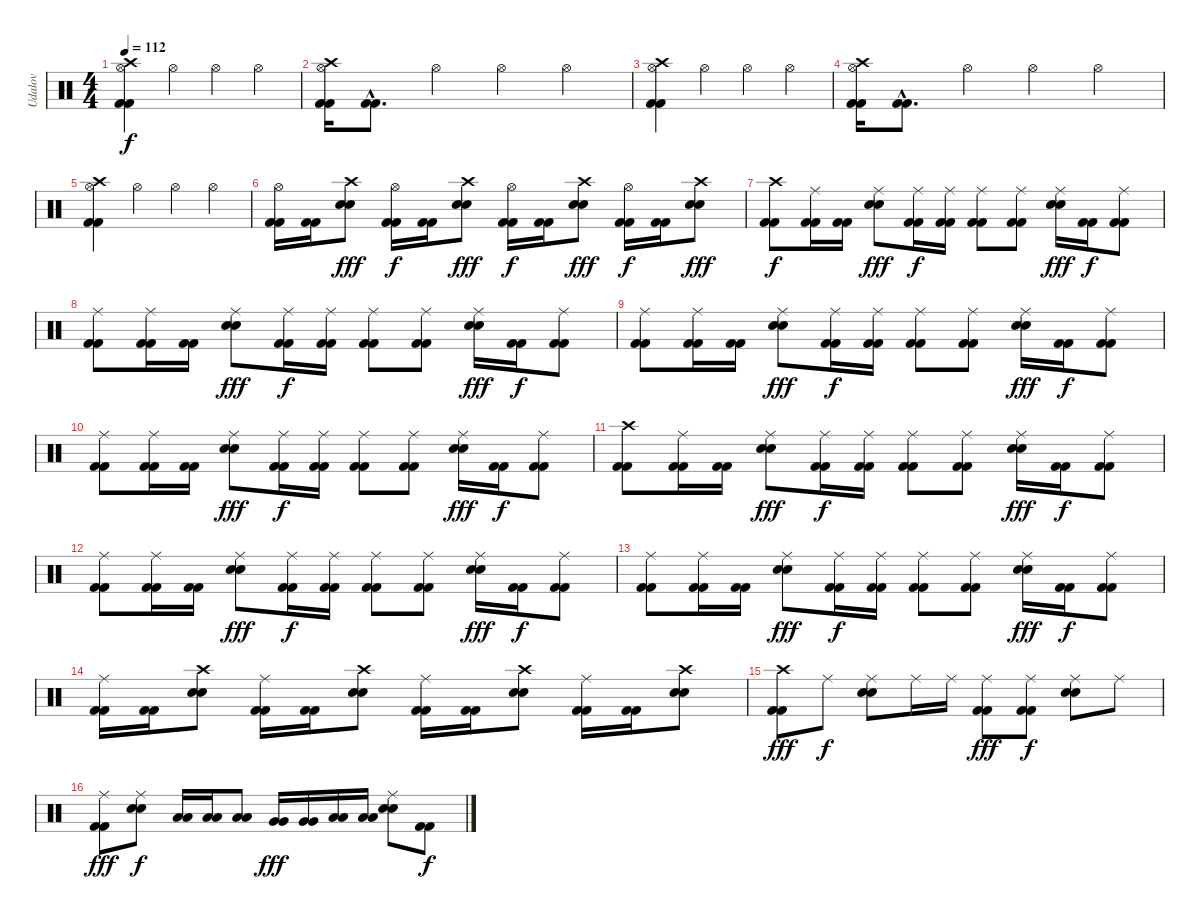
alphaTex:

\track ("Udalov" "Udalov") {instrument percussion}
\staff {score}
\articulation defaults
\ts (4 4)
\tempo 112
\clef neutral
\ks c
("Crash high (hit)" "Hi-Hat (open)" "Kick (hit) 2" "Kick (hit) 2").4{dy f} "Hi-Hat (open)".4 "Hi-Hat (open)".4 "Hi-Hat (open)".4 |
("Crash high (hit)" "Hi-Hat (open)" "Kick (hit) 2" "Kick (hit) 2").16 ("Kick (hit) 2"{hac} "Kick (hit) 2"{hac}).8{d} "Hi-Hat (open)".4 "Hi-Hat (open)".4 "Hi-Hat (open)".4 |
("Crash high (hit)" "Hi-Hat (open)" "Kick (hit) 2" "Kick (hit) 2").4 "Hi-Hat (open)".4 "Hi-Hat (open)".4 "Hi-Hat (open)".4 |
("Crash high (hit)" "Hi-Hat (open)" "Kick (hit) 2" "Kick (hit) 2").16 ("Kick (hit) 2"{hac} "Kick (hit) 2"{hac}).8{d} "Hi-Hat (open)".4 "Hi-Hat (open)".4 "Hi-Hat (open)".4 |
("Crash high (hit)" "Hi-Hat (open)" "Kick (hit) 2" "Kick (hit) 2").4 "Hi-Hat (open)".4 "Hi-Hat (open)".4 "Hi-Hat (open)".4 |
("Hi-Hat (open)" "Kick (hit) 2" "Kick (hit) 2").16 ("Kick (hit) 2" "Kick (hit) 2").16 ("Crash high (hit)" "Electric Snare (hit)" "Electric Snare (hit)").8{dy fff} ("Hi-Hat (open)" "Kick (hit) 2" "Kick (hit) 2").16{dy f} ("Kick (hit) 2" "Kick (hit) 2").16 ("Crash high (hit)" "Electric Snare (hit)" "Electric Snare (hit)").8{dy fff} ("Hi-Hat (open)" "Kick (hit) 2" "Kick (hit) 2").16{dy f} ("Kick (hit) 2" "Kick (hit) 2").16 ("Crash high (hit)" "Electric Snare (hit)" "Electric Snare (hit)").8{dy fff} ("Hi-Hat (open)" "Kick (hit) 2" "Kick (hit) 2").16{dy f} ("Kick (hit) 2" "Kick (hit) 2").16 ("Crash high (hit)" "Electric Snare (hit)" "Electric Snare (hit)").8{dy fff} |
("Crash high (hit)" "Kick (hit) 2" "Kick (hit) 2").8{dy f} ("Ride (middle)" "Kick (hit) 2" "Kick (hit) 2").16 ("Kick (hit) 2" "Kick (hit) 2").16 ("Ride (middle)" "Electric Snare (hit)" "Electric Snare (hit)").8{dy fff} ("Ride (middle)" "Kick (hit) 2" "Kick (hit) 2").16{dy f} ("Ride (middle)" "Kick (hit) 2" "Kick (hit) 2").16 ("Ride (middle)" "Kick (hit) 2" "Kick (hit) 2").8 ("Ride (middle)" "Kick (hit) 2" "Kick (hit) 2").8 ("Ride (middle)" "Electric Snare (hit)" "Electric Snare (hit)").16{dy fff} ("Kick (hit) 2" "Kick (hit) 2").16{dy f} ("Ride (middle)" "Kick (hit) 2" "Kick (hit) 2").8 |
("Ride (middle)" "Kick (hit) 2" "Kick (hit) 2").8 ("Ride (middle)" "Kick (hit) 2" "Kick (hit) 2").16 ("Kick (hit) 2" "Kick (hit) 2").16 ("Ride (middle)" "Electric Snare (hit)" "Electric Snare (hit)").8{dy fff} ("Ride (middle)" "Kick (hit) 2" "Kick (hit) 2").16{dy f} ("Ride (middle)" "Kick (hit) 2" "Kick (hit) 2").16 ("Ride (middle)" "Kick (hit) 2" "Kick (hit) 2").8 ("Ride (middle)" "Kick (hit) 2" "Kick (hit) 2").8 ("Ride (middle)" "Electric Snare (hit)" "Electric Snare (hit)").16{dy fff} ("Kick (hit) 2" "Kick (hit) 2").16{dy f} ("Ride (middle)" "Kick (hit) 2" "Kick (hit) 2").8 |
("Ride (middle)" "Kick (hit) 2" "Kick (hit) 2").8 ("Ride (middle)" "Kick (hit) 2" "Kick (hit) 2").16 ("Kick (hit) 2" "Kick (hit) 2").16 ("Ride (middle)" "Electric Snare (hit)" "Electric Snare (hit)").8{dy fff} ("Ride (middle)" "Kick (hit) 2" "Kick (hit) 2").16{dy f} ("Ride (middle)" "Kick (hit) 2" "Kick (hit) 2").16 ("Ride (middle)" "Kick (hit) 2" "Kick (hit) 2").8 ("Ride (middle)" "Kick (hit) 2" "Kick (hit) 2").8 ("Ride (middle)" "Electric Snare (hit)" "Electric Snare (hit)").16{dy fff} ("Kick (hit) 2" "Kick (hit) 2").16{dy f} ("Ride (middle)" "Kick (hit) 2" "Kick (hit) 2").8 |
("Ride (middle)" "Kick (hit) 2" "Kick (hit) 2").8 ("Ride (middle)" "Kick (hit) 2" "Kick (hit) 2").16 ("Kick (hit) 2" "Kick (hit) 2").16 ("Ride (middle)" "Electric Snare (hit)" "Electric Snare (hit)").8{dy fff} ("Ride (middle)" "Kick (hit) 2" "Kick (hit) 2").16{dy f} ("Ride (middle)" "Kick (hit) 2" "Kick (hit) 2").16 ("Ride (middle)" "Kick (hit) 2" "Kick (hit) 2").8 ("Ride (middle)" "Kick (hit) 2" "Kick (hit) 2").8 ("Ride (middle)" "Electric Snare (hit)" "Electric Snare (hit)").16{dy fff} ("Kick (hit) 2" "Kick (hit) 2").16{dy f} ("Ride (middle)" "Kick (hit) 2" "Kick (hit) 2").8 |
("Crash high (hit)" "Kick (hit) 2" "Kick (hit) 2").8 ("Ride (middle)" "Kick (hit) 2" "Kick (hit) 2").16 ("Kick (hit) 2" "Kick (hit) 2").16 ("Ride (middle)" "Electric Snare (hit)" "Electric Snare (hit)").8{dy fff} ("Ride (middle)" "Kick (hit) 2" "Kick (hit) 2").16{dy f} ("Ride (middle)" "Kick (hit) 2" "Kick (hit) 2").16 ("Ride (middle)" "Kick (hit) 2" "Kick (hit) 2").8 ("Ride (middle)" "Kick (hit) 2" "Kick (hit) 2").8 ("Ride (middle)" "Electric Snare (hit)" "Electric Snare (hit)").16{dy fff} ("Kick (hit) 2" "Kick (hit) 2").16{dy f} ("Ride (middle)" "Kick (hit) 2" "Kick (hit) 2").8 |
("Ride (middle)" "Kick (hit) 2" "Kick (hit) 2").8 ("Ride (middle)" "Kick (hit) 2" "Kick (hit) 2").16 ("Kick (hit) 2" "Kick (hit) 2").16 ("Ride (middle)" "Electric Snare (hit)" "Electric Snare (hit)").8{dy fff} ("Ride (middle)" "Kick (hit) 2" "Kick (hit) 2").16{dy f} ("Ride (middle)" "Kick (hit) 2" "Kick (hit) 2").16 ("Ride (middle)" "Kick (hit) 2" "Kick (hit) 2").8 ("Ride (middle)" "Kick (hit) 2" "Kick (hit) 2").8 ("Ride (middle)" "Electric Snare (hit)" "Electric Snare (hit)").16{dy fff} ("Kick (hit) 2" "Kick (hit) 2").16{dy f} ("Ride (middle)" "Kick (hit) 2" "Kick (hit) 2").8 |
("Ride (middle)" "Kick (hit) 2" "Kick (hit) 2").8 ("Ride (middle)" "Kick (hit) 2" "Kick (hit) 2").16 ("Kick (hit) 2" "Kick (hit) 2").16 ("Ride (middle)" "Electric Snare (hit)" "Electric Snare (hit)").8{dy fff} ("Ride (middle)" "Kick (hit) 2" "Kick (hit) 2").16{dy f} ("Ride (middle)" "Kick (hit) 2" "Kick (hit) 2").16 ("Ride (middle)" "Kick (hit) 2" "Kick (hit) 2").8 ("Ride (middle)" "Kick (hit) 2" "Kick (hit) 2").8 ("Ride (middle)" "Electric Snare (hit)" "Electric Snare (hit)").16{dy fff} ("Kick (hit) 2" "Kick (hit) 2").16{dy f} ("Ride (middle)" "Kick (hit) 2" "Kick (hit) 2").8 |
("Ride (middle)" "Kick (hit) 2" "Kick (hit) 2").16 ("Kick (hit) 2" "Kick (hit) 2").16 ("Crash high (hit)" "Electric Snare (hit)" "Electric Snare (hit)").8 ("Ride (middle)" "Kick (hit) 2" "Kick (hit) 2").16 ("Kick (hit) 2" "Kick (hit) 2").16 ("Crash high (hit)" "Electric Snare (hit)" "Electric Snare (hit)").8 ("Ride (middle)" "Kick (hit) 2" "Kick (hit) 2").16 ("Kick (hit) 2" "Kick (hit) 2").16 ("Crash high (hit)" "Electric Snare (hit)" "Electric Snare (hit)").8 ("Ride (middle)" "Kick (hit) 2" "Kick (hit) 2").16 ("Kick (hit) 2" "Kick (hit) 2").16 ("Crash high (hit)" "Electric Snare (hit)" "Electric Snare (hit)").8 |
("Crash high (hit)" "Kick (hit) 2" "Kick (hit) 2").8{dy fff} "Ride (middle)".8{dy f} ("Ride (middle)" "Electric Snare (hit)" "Electric Snare (hit)").8 "Ride (middle)".16 "Ride (middle)".16 ("Ride (middle)" "Kick (hit) 2" "Kick (hit) 2").8{dy fff} ("Ride (middle)" "Kick (hit) 2" "Kick (hit) 2").8{dy f} ("Ride (middle)" "Electric Snare (hit)" "Electric Snare (hit)").8 "Ride (middle)".8 |
("Ride (middle)" "Kick (hit) 2" "Kick (hit) 2").8{dy fff} ("Ride (middle)" "Electric Snare (hit)" "Electric Snare (hit)").8{dy f} ("Low Tom (hit)" "Low Tom (hit)").16 ("Low Tom (hit)" "Low Tom (hit)").16 ("Low Tom (hit)" "Low Tom (hit)").8 ("Very Low Tom (hit)" "Very Low Tom (hit)").16{dy fff} ("Very Low Tom (hit)" "Very Low Tom (hit)").16 ("Low Tom (hit)" "Low Tom (hit)").16 ("Low Tom (hit)" "Low Tom (hit)").16 ("Ride (middle)" "Electric Snare (hit)" "Electric Snare (hit)").8 ("Kick (hit) 2" "Kick (hit) 2").8{dy f}
